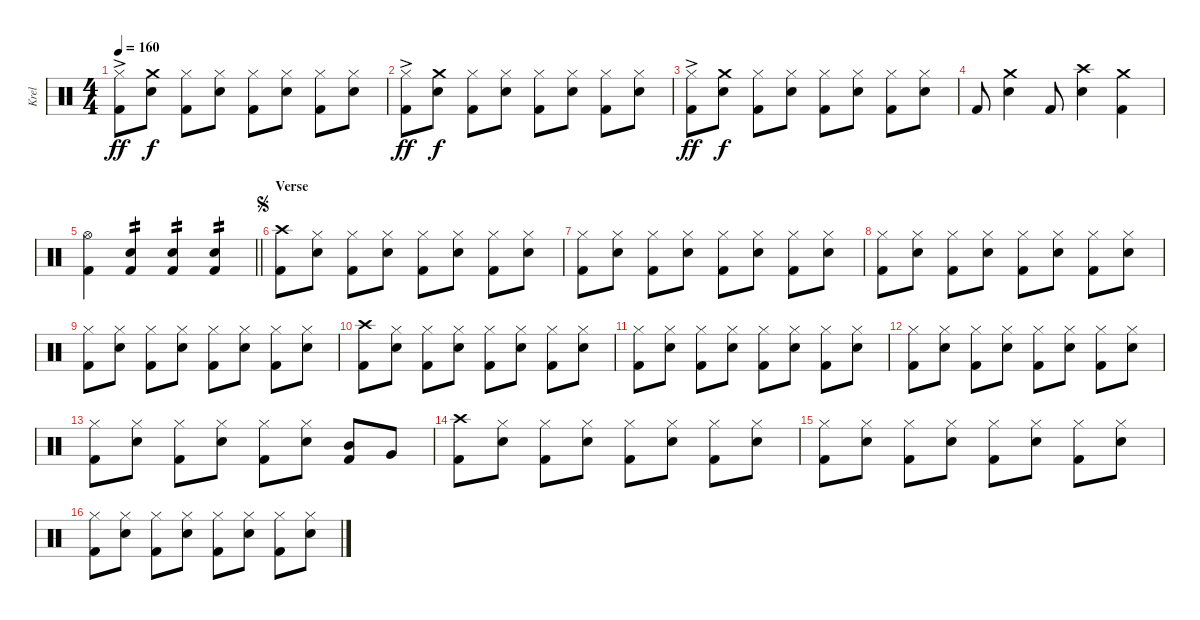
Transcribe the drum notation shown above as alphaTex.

\track ("Krel" "Krel") {instrument percussion}
\staff {score}
\articulation defaults
\ts (4 4)
\tempo 160
\clef neutral
\ks c
("Hi-Hat (closed)" "Kick (hit) 2"{ac}).8{dy ff} ("Crash medium (hit)" "Snare (hit) 2").8{dy f} ("Hi-Hat (closed)" "Kick (hit) 2").8 ("Hi-Hat (closed)" "Snare (hit) 2").8 ("Hi-Hat (closed)" "Kick (hit) 2").8 ("Hi-Hat (closed)" "Snare (hit) 2").8 ("Hi-Hat (closed)" "Kick (hit) 2").8 ("Hi-Hat (closed)" "Snare (hit) 2").8 |
("Hi-Hat (closed)" "Kick (hit) 2"{ac}).8{dy ff} ("Crash medium (hit)" "Snare (hit) 2").8{dy f} ("Hi-Hat (closed)" "Kick (hit) 2").8 ("Hi-Hat (closed)" "Snare (hit) 2").8 ("Hi-Hat (closed)" "Kick (hit) 2").8 ("Hi-Hat (closed)" "Snare (hit) 2").8 ("Hi-Hat (closed)" "Kick (hit) 2").8 ("Hi-Hat (closed)" "Snare (hit) 2").8 |
("Hi-Hat (closed)" "Kick (hit) 2"{ac}).8{dy ff} ("Crash medium (hit)" "Snare (hit) 2").8{dy f} ("Hi-Hat (closed)" "Kick (hit) 2").8 ("Hi-Hat (closed)" "Snare (hit) 2").8 ("Hi-Hat (closed)" "Kick (hit) 2").8 ("Hi-Hat (closed)" "Snare (hit) 2").8 ("Hi-Hat (closed)" "Kick (hit) 2").8 ("Hi-Hat (closed)" "Snare (hit) 2").8 |
"Kick (hit) 2".8 ("Crash medium (hit)" "Snare (hit) 2").4 "Kick (hit) 2".8 ("Crash high (hit)" "Snare (hit) 2").4 ("Crash medium (hit)" "Kick (hit) 2").4 |
\barLineRight lightlight
("Hi-Hat (open)" "Kick (hit) 2").4 ("Snare (hit) 2" "Kick (hit) 2").4{tp 2} ("Snare (hit) 2" "Kick (hit) 2").4{tp 2} ("Snare (hit) 2" "Kick (hit) 2").4{tp 2} |
\section ("" "Verse")
\jump segno
("Crash high (hit)" "Kick (hit) 2").8 ("Hi-Hat (closed)" "Snare (hit) 2").8 ("Hi-Hat (closed)" "Kick (hit) 2").8 ("Hi-Hat (closed)" "Snare (hit) 2").8 ("Hi-Hat (closed)" "Kick (hit) 2").8 ("Hi-Hat (closed)" "Snare (hit) 2").8 ("Hi-Hat (closed)" "Kick (hit) 2").8 ("Hi-Hat (closed)" "Snare (hit) 2").8 |
("Hi-Hat (closed)" "Kick (hit) 2").8 ("Hi-Hat (closed)" "Snare (hit) 2").8 ("Hi-Hat (closed)" "Kick (hit) 2").8 ("Hi-Hat (closed)" "Snare (hit) 2").8 ("Hi-Hat (closed)" "Kick (hit) 2").8 ("Hi-Hat (closed)" "Snare (hit) 2").8 ("Hi-Hat (closed)" "Kick (hit) 2").8 ("Hi-Hat (closed)" "Snare (hit) 2").8 |
("Hi-Hat (closed)" "Kick (hit) 2").8 ("Hi-Hat (closed)" "Snare (hit) 2").8 ("Hi-Hat (closed)" "Kick (hit) 2").8 ("Hi-Hat (closed)" "Snare (hit) 2").8 ("Hi-Hat (closed)" "Kick (hit) 2").8 ("Hi-Hat (closed)" "Snare (hit) 2").8 ("Hi-Hat (closed)" "Kick (hit) 2").8 ("Hi-Hat (closed)" "Snare (hit) 2").8 |
("Hi-Hat (closed)" "Kick (hit) 2").8 ("Hi-Hat (closed)" "Snare (hit) 2").8 ("Hi-Hat (closed)" "Kick (hit) 2").8 ("Hi-Hat (closed)" "Snare (hit) 2").8 ("Hi-Hat (closed)" "Kick (hit) 2").8 ("Hi-Hat (closed)" "Snare (hit) 2").8 ("Hi-Hat (closed)" "Kick (hit) 2").8 ("Hi-Hat (closed)" "Snare (hit) 2").8 |
("Crash high (hit)" "Kick (hit) 2").8 ("Hi-Hat (closed)" "Snare (hit) 2").8 ("Hi-Hat (closed)" "Kick (hit) 2").8 ("Hi-Hat (closed)" "Snare (hit) 2").8 ("Hi-Hat (closed)" "Kick (hit) 2").8 ("Hi-Hat (closed)" "Snare (hit) 2").8 ("Hi-Hat (closed)" "Kick (hit) 2").8 ("Hi-Hat (closed)" "Snare (hit) 2").8 |
("Hi-Hat (closed)" "Kick (hit) 2").8 ("Hi-Hat (closed)" "Snare (hit) 2").8 ("Hi-Hat (closed)" "Kick (hit) 2").8 ("Hi-Hat (closed)" "Snare (hit) 2").8 ("Hi-Hat (closed)" "Kick (hit) 2").8 ("Hi-Hat (closed)" "Snare (hit) 2").8 ("Hi-Hat (closed)" "Kick (hit) 2").8 ("Hi-Hat (closed)" "Snare (hit) 2").8 |
("Hi-Hat (closed)" "Kick (hit) 2").8 ("Hi-Hat (closed)" "Snare (hit) 2").8 ("Hi-Hat (closed)" "Kick (hit) 2").8 ("Hi-Hat (closed)" "Snare (hit) 2").8 ("Hi-Hat (closed)" "Kick (hit) 2").8 ("Hi-Hat (closed)" "Snare (hit) 2").8 ("Hi-Hat (closed)" "Kick (hit) 2").8 ("Hi-Hat (closed)" "Snare (hit) 2").8 |
("Hi-Hat (closed)" "Kick (hit) 2").8 ("Hi-Hat (closed)" "Snare (hit) 2").8 ("Hi-Hat (closed)" "Kick (hit) 2").8 ("Hi-Hat (closed)" "Snare (hit) 2").8 ("Hi-Hat (closed)" "Kick (hit) 2").8 ("Hi-Hat (closed)" "Snare (hit) 2").8 ("Mid Tom (hit)" "Kick (hit) 2").8 "Very Low Tom (hit)".8 |
("Crash high (hit)" "Kick (hit) 2").8 ("Hi-Hat (closed)" "Snare (hit) 2").8 ("Hi-Hat (closed)" "Kick (hit) 2").8 ("Hi-Hat (closed)" "Snare (hit) 2").8 ("Hi-Hat (closed)" "Kick (hit) 2").8 ("Hi-Hat (closed)" "Snare (hit) 2").8 ("Hi-Hat (closed)" "Kick (hit) 2").8 ("Hi-Hat (closed)" "Snare (hit) 2").8 |
("Hi-Hat (closed)" "Kick (hit) 2").8 ("Hi-Hat (closed)" "Snare (hit) 2").8 ("Hi-Hat (closed)" "Kick (hit) 2").8 ("Hi-Hat (closed)" "Snare (hit) 2").8 ("Hi-Hat (closed)" "Kick (hit) 2").8 ("Hi-Hat (closed)" "Snare (hit) 2").8 ("Hi-Hat (closed)" "Kick (hit) 2").8 ("Hi-Hat (closed)" "Snare (hit) 2").8 |
("Hi-Hat (closed)" "Kick (hit) 2").8 ("Hi-Hat (closed)" "Snare (hit) 2").8 ("Hi-Hat (closed)" "Kick (hit) 2").8 ("Hi-Hat (closed)" "Snare (hit) 2").8 ("Hi-Hat (closed)" "Kick (hit) 2").8 ("Hi-Hat (closed)" "Snare (hit) 2").8 ("Hi-Hat (closed)" "Kick (hit) 2").8 ("Hi-Hat (closed)" "Snare (hit) 2").8
